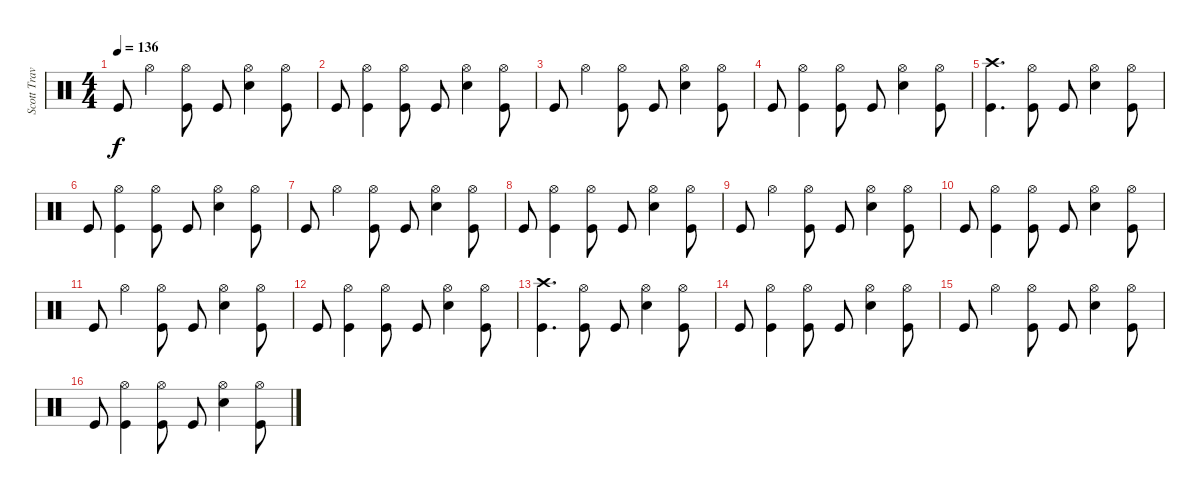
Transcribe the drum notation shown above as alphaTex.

\track ("Scott Travis" "Scott Trav") {instrument percussion}
\staff {score}
\articulation defaults
\ts (4 4)
\tempo 136
\clef neutral
\ks c "Kick (hit)".8{dy f} "Hi-Hat (open)".4
("Hi-Hat (open)" "Kick (hit)").8 "Kick (hit)".8 ("Hi-Hat (open)" "Electric Snare (hit)").4 ("Hi-Hat (open)" "Kick (hit)").8 |
"Kick (hit)".8 ("Hi-Hat (open)" "Kick (hit)").4 ("Hi-Hat (open)" "Kick (hit)").8 "Kick (hit)".8 ("Hi-Hat (open)" "Electric Snare (hit)").4 ("Hi-Hat (open)" "Kick (hit)").8 |
"Kick (hit)".8 "Hi-Hat (open)".4 ("Hi-Hat (open)" "Kick (hit)").8 "Kick (hit)".8 ("Hi-Hat (open)" "Electric Snare (hit)").4 ("Hi-Hat (open)" "Kick (hit)").8 |
"Kick (hit)".8 ("Hi-Hat (open)" "Kick (hit)").4 ("Hi-Hat (open)" "Kick (hit)").8 "Kick (hit)".8 ("Hi-Hat (open)" "Electric Snare (hit)").4 ("Hi-Hat (open)" "Kick (hit)").8 |
("Crash high (hit)" "Kick (hit)").4{d} ("Hi-Hat (open)" "Kick (hit)").8 "Kick (hit)".8 ("Hi-Hat (open)" "Electric Snare (hit)").4 ("Hi-Hat (open)" "Kick (hit)").8 |
"Kick (hit)".8 ("Hi-Hat (open)" "Kick (hit)").4 ("Hi-Hat (open)" "Kick (hit)").8 "Kick (hit)".8 ("Hi-Hat (open)" "Electric Snare (hit)").4 ("Hi-Hat (open)" "Kick (hit)").8 |
"Kick (hit)".8 "Hi-Hat (open)".4 ("Hi-Hat (open)" "Kick (hit)").8 "Kick (hit)".8 ("Hi-Hat (open)" "Electric Snare (hit)").4 ("Hi-Hat (open)" "Kick (hit)").8 |
"Kick (hit)".8 ("Hi-Hat (open)" "Kick (hit)").4 ("Hi-Hat (open)" "Kick (hit)").8 "Kick (hit)".8 ("Hi-Hat (open)" "Electric Snare (hit)").4 ("Hi-Hat (open)" "Kick (hit)").8 |
"Kick (hit)".8 "Hi-Hat (open)".4 ("Hi-Hat (open)" "Kick (hit)").8 "Kick (hit)".8 ("Hi-Hat (open)" "Electric Snare (hit)").4 ("Hi-Hat (open)" "Kick (hit)").8 |
"Kick (hit)".8 ("Hi-Hat (open)" "Kick (hit)").4 ("Hi-Hat (open)" "Kick (hit)").8 "Kick (hit)".8 ("Hi-Hat (open)" "Electric Snare (hit)").4 ("Hi-Hat (open)" "Kick (hit)").8 |
"Kick (hit)".8 "Hi-Hat (open)".4 ("Hi-Hat (open)" "Kick (hit)").8 "Kick (hit)".8 ("Hi-Hat (open)" "Electric Snare (hit)").4 ("Hi-Hat (open)" "Kick (hit)").8 |
"Kick (hit)".8 ("Hi-Hat (open)" "Kick (hit)").4 ("Hi-Hat (open)" "Kick (hit)").8 "Kick (hit)".8 ("Hi-Hat (open)" "Electric Snare (hit)").4 ("Hi-Hat (open)" "Kick (hit)").8 |
("Crash high (hit)" "Kick (hit)").4{d} ("Hi-Hat (open)" "Kick (hit)").8 "Kick (hit)".8 ("Hi-Hat (open)" "Electric Snare (hit)").4 ("Hi-Hat (open)" "Kick (hit)").8 |
"Kick (hit)".8 ("Hi-Hat (open)" "Kick (hit)").4 ("Hi-Hat (open)" "Kick (hit)").8 "Kick (hit)".8 ("Hi-Hat (open)" "Electric Snare (hit)").4 ("Hi-Hat (open)" "Kick (hit)").8 |
"Kick (hit)".8 "Hi-Hat (open)".4 ("Hi-Hat (open)" "Kick (hit)").8 "Kick (hit)".8 ("Hi-Hat (open)" "Electric Snare (hit)").4 ("Hi-Hat (open)" "Kick (hit)").8 |
"Kick (hit)".8 ("Hi-Hat (open)" "Kick (hit)").4 ("Hi-Hat (open)" "Kick (hit)").8 "Kick (hit)".8 ("Hi-Hat (open)" "Electric Snare (hit)").4 ("Hi-Hat (open)" "Kick (hit)").8
